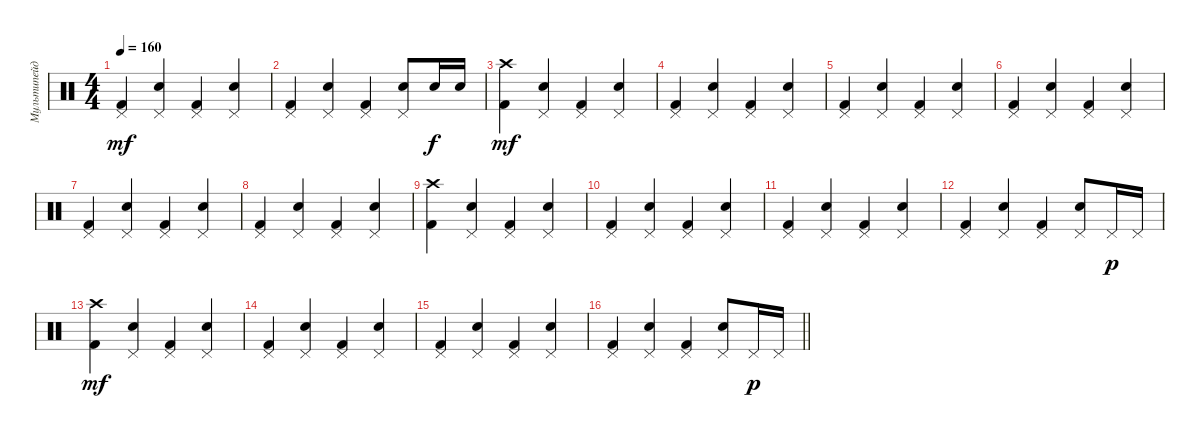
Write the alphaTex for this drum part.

\track ("Мультипейджер" "Мультипейд") {instrument percussion}
\staff {score}
\articulation defaults
\ts (4 4)
\tempo 160
\clef neutral
\ks c
("Pedal Hi-Hat (hit)" "Kick (hit) 2").4{dy mf} ("Pedal Hi-Hat (hit)" "Snare (hit) 2").4 ("Pedal Hi-Hat (hit)" "Kick (hit) 2").4 ("Pedal Hi-Hat (hit)" "Snare (hit) 2").4 |
("Pedal Hi-Hat (hit)" "Kick (hit) 2").4 ("Pedal Hi-Hat (hit)" "Snare (hit) 2").4 ("Pedal Hi-Hat (hit)" "Kick (hit) 2").4 ("Pedal Hi-Hat (hit)" "Snare (hit) 2").8 "Electric Snare (hit)".16{dy f} "Electric Snare (hit)".16 |
("Crash high (hit)" "Kick (hit) 2").4{dy mf} ("Pedal Hi-Hat (hit)" "Snare (hit) 2").4 ("Pedal Hi-Hat (hit)" "Kick (hit) 2").4 ("Pedal Hi-Hat (hit)" "Snare (hit) 2").4 |
("Pedal Hi-Hat (hit)" "Kick (hit) 2").4 ("Pedal Hi-Hat (hit)" "Snare (hit) 2").4 ("Pedal Hi-Hat (hit)" "Kick (hit) 2").4 ("Pedal Hi-Hat (hit)" "Snare (hit) 2").4 |
("Pedal Hi-Hat (hit)" "Kick (hit) 2").4 ("Pedal Hi-Hat (hit)" "Snare (hit) 2").4 ("Pedal Hi-Hat (hit)" "Kick (hit) 2").4 ("Pedal Hi-Hat (hit)" "Snare (hit) 2").4 |
("Pedal Hi-Hat (hit)" "Kick (hit) 2").4 ("Pedal Hi-Hat (hit)" "Snare (hit) 2").4 ("Pedal Hi-Hat (hit)" "Kick (hit) 2").4 ("Pedal Hi-Hat (hit)" "Snare (hit) 2").4 |
("Pedal Hi-Hat (hit)" "Kick (hit) 2").4 ("Pedal Hi-Hat (hit)" "Snare (hit) 2").4 ("Pedal Hi-Hat (hit)" "Kick (hit) 2").4 ("Pedal Hi-Hat (hit)" "Snare (hit) 2").4 |
("Pedal Hi-Hat (hit)" "Kick (hit) 2").4 ("Pedal Hi-Hat (hit)" "Snare (hit) 2").4 ("Pedal Hi-Hat (hit)" "Kick (hit) 2").4 ("Pedal Hi-Hat (hit)" "Snare (hit) 2").4 |
("Crash high (hit)" "Kick (hit) 2").4 ("Pedal Hi-Hat (hit)" "Snare (hit) 2").4 ("Pedal Hi-Hat (hit)" "Kick (hit) 2").4 ("Pedal Hi-Hat (hit)" "Snare (hit) 2").4 |
("Pedal Hi-Hat (hit)" "Kick (hit) 2").4 ("Pedal Hi-Hat (hit)" "Snare (hit) 2").4 ("Pedal Hi-Hat (hit)" "Kick (hit) 2").4 ("Pedal Hi-Hat (hit)" "Snare (hit) 2").4 |
("Pedal Hi-Hat (hit)" "Kick (hit) 2").4 ("Pedal Hi-Hat (hit)" "Snare (hit) 2").4 ("Pedal Hi-Hat (hit)" "Kick (hit) 2").4 ("Pedal Hi-Hat (hit)" "Snare (hit) 2").4 |
("Pedal Hi-Hat (hit)" "Kick (hit) 2").4 ("Pedal Hi-Hat (hit)" "Snare (hit) 2").4 ("Pedal Hi-Hat (hit)" "Kick (hit) 2").4 ("Pedal Hi-Hat (hit)" "Snare (hit) 2").8 "Pedal Hi-Hat (hit)".16{dy p} "Pedal Hi-Hat (hit)".16 |
("Crash high (hit)" "Kick (hit) 2").4{dy mf} ("Pedal Hi-Hat (hit)" "Snare (hit) 2").4 ("Pedal Hi-Hat (hit)" "Kick (hit) 2").4 ("Pedal Hi-Hat (hit)" "Snare (hit) 2").4 |
("Pedal Hi-Hat (hit)" "Kick (hit) 2").4 ("Pedal Hi-Hat (hit)" "Snare (hit) 2").4 ("Pedal Hi-Hat (hit)" "Kick (hit) 2").4 ("Pedal Hi-Hat (hit)" "Snare (hit) 2").4 |
("Pedal Hi-Hat (hit)" "Kick (hit) 2").4 ("Pedal Hi-Hat (hit)" "Snare (hit) 2").4 ("Pedal Hi-Hat (hit)" "Kick (hit) 2").4 ("Pedal Hi-Hat (hit)" "Snare (hit) 2").4 |
\barLineRight lightlight
("Pedal Hi-Hat (hit)" "Kick (hit) 2").4 ("Pedal Hi-Hat (hit)" "Snare (hit) 2").4 ("Pedal Hi-Hat (hit)" "Kick (hit) 2").4 ("Pedal Hi-Hat (hit)" "Snare (hit) 2").8 "Pedal Hi-Hat (hit)".16{dy p} "Pedal Hi-Hat (hit)".16
